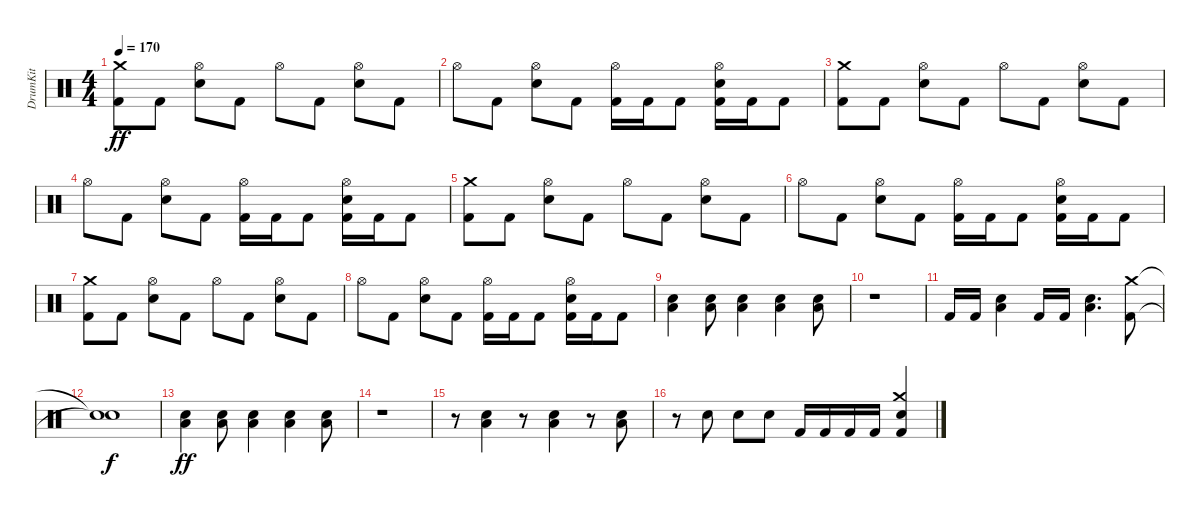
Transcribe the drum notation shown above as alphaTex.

\track ("DrumKit" "DrumKit") {instrument percussion}
\staff {score}
\articulation defaults
\ts (4 4)
\tempo 170
\clef neutral
\ks c
("Kick (hit) 2" "Crash medium (hit)").8{dy ff} "Kick (hit) 2".8 ("Snare (hit) 2" "Hi-Hat (open)").8 "Kick (hit) 2".8 "Hi-Hat (open)".8 "Kick (hit) 2".8 ("Snare (hit) 2" "Hi-Hat (open)").8 "Kick (hit) 2".8 |
"Hi-Hat (open)".8 "Kick (hit) 2".8 ("Snare (hit) 2" "Hi-Hat (open)").8 "Kick (hit) 2".8 ("Kick (hit) 2" "Hi-Hat (open)").16 "Kick (hit) 2".16 "Kick (hit) 2".8 ("Kick (hit) 2" "Snare (hit) 2" "Hi-Hat (open)").16 "Kick (hit) 2".16 "Kick (hit) 2".8 |
("Kick (hit) 2" "Crash medium (hit)").8 "Kick (hit) 2".8 ("Snare (hit) 2" "Hi-Hat (open)").8 "Kick (hit) 2".8 "Hi-Hat (open)".8 "Kick (hit) 2".8 ("Snare (hit) 2" "Hi-Hat (open)").8 "Kick (hit) 2".8 |
"Hi-Hat (open)".8 "Kick (hit) 2".8 ("Snare (hit) 2" "Hi-Hat (open)").8 "Kick (hit) 2".8 ("Kick (hit) 2" "Hi-Hat (open)").16 "Kick (hit) 2".16 "Kick (hit) 2".8 ("Kick (hit) 2" "Snare (hit) 2" "Hi-Hat (open)").16 "Kick (hit) 2".16 "Kick (hit) 2".8 |
("Kick (hit) 2" "Crash medium (hit)").8 "Kick (hit) 2".8 ("Snare (hit) 2" "Hi-Hat (open)").8 "Kick (hit) 2".8 "Hi-Hat (open)".8 "Kick (hit) 2".8 ("Snare (hit) 2" "Hi-Hat (open)").8 "Kick (hit) 2".8 |
"Hi-Hat (open)".8 "Kick (hit) 2".8 ("Snare (hit) 2" "Hi-Hat (open)").8 "Kick (hit) 2".8 ("Kick (hit) 2" "Hi-Hat (open)").16 "Kick (hit) 2".16 "Kick (hit) 2".8 ("Kick (hit) 2" "Snare (hit) 2" "Hi-Hat (open)").16 "Kick (hit) 2".16 "Kick (hit) 2".8 |
("Kick (hit) 2" "Crash medium (hit)").8 "Kick (hit) 2".8 ("Snare (hit) 2" "Hi-Hat (open)").8 "Kick (hit) 2".8 "Hi-Hat (open)".8 "Kick (hit) 2".8 ("Snare (hit) 2" "Hi-Hat (open)").8 "Kick (hit) 2".8 |
"Hi-Hat (open)".8 "Kick (hit) 2".8 ("Snare (hit) 2" "Hi-Hat (open)").8 "Kick (hit) 2".8 ("Kick (hit) 2" "Hi-Hat (open)").16 "Kick (hit) 2".16 "Kick (hit) 2".8 ("Kick (hit) 2" "Snare (hit) 2" "Hi-Hat (open)").16 "Kick (hit) 2".16 "Kick (hit) 2".8 |
("Snare (hit) 2" "Low Floor Tom (hit)").4 ("Snare (hit) 2" "Low Floor Tom (hit)").8 ("Snare (hit) 2" "Low Floor Tom (hit)").4 ("Snare (hit) 2" "Low Floor Tom (hit)").4 ("Snare (hit) 2" "Low Floor Tom (hit)").8 |
r.1 |
"Kick (hit) 2".16 "Kick (hit) 2".16 ("Snare (hit) 2" "Low Floor Tom (hit)").4 "Kick (hit) 2".16 "Kick (hit) 2".16 ("Snare (hit) 2" "Low Floor Tom (hit)").4{d} ("Kick (hit) 2" "Crash medium (hit)").8 |
("Snare (hit)"{t} "Snare (hit)"{t}).1{dy f} |
("Snare (hit) 2" "Low Floor Tom (hit)").4{dy ff} ("Snare (hit) 2" "Low Floor Tom (hit)").8 ("Snare (hit) 2" "Low Floor Tom (hit)").4 ("Snare (hit) 2" "Low Floor Tom (hit)").4 ("Snare (hit) 2" "Low Floor Tom (hit)").8 |
r.1 |
r.8 ("Snare (hit) 2" "Low Floor Tom (hit)").4 r.8 ("Snare (hit) 2" "Low Floor Tom (hit)").4 r.8 ("Snare (hit) 2" "Low Floor Tom (hit)").8 |
r.8 "Snare (hit) 2".8 "Snare (hit) 2".8 "Snare (hit) 2".8 "Kick (hit) 2".16 "Kick (hit) 2".16 "Kick (hit) 2".16 "Kick (hit) 2".16 ("Kick (hit) 2" "Snare (hit) 2" "Crash medium (hit)").4
